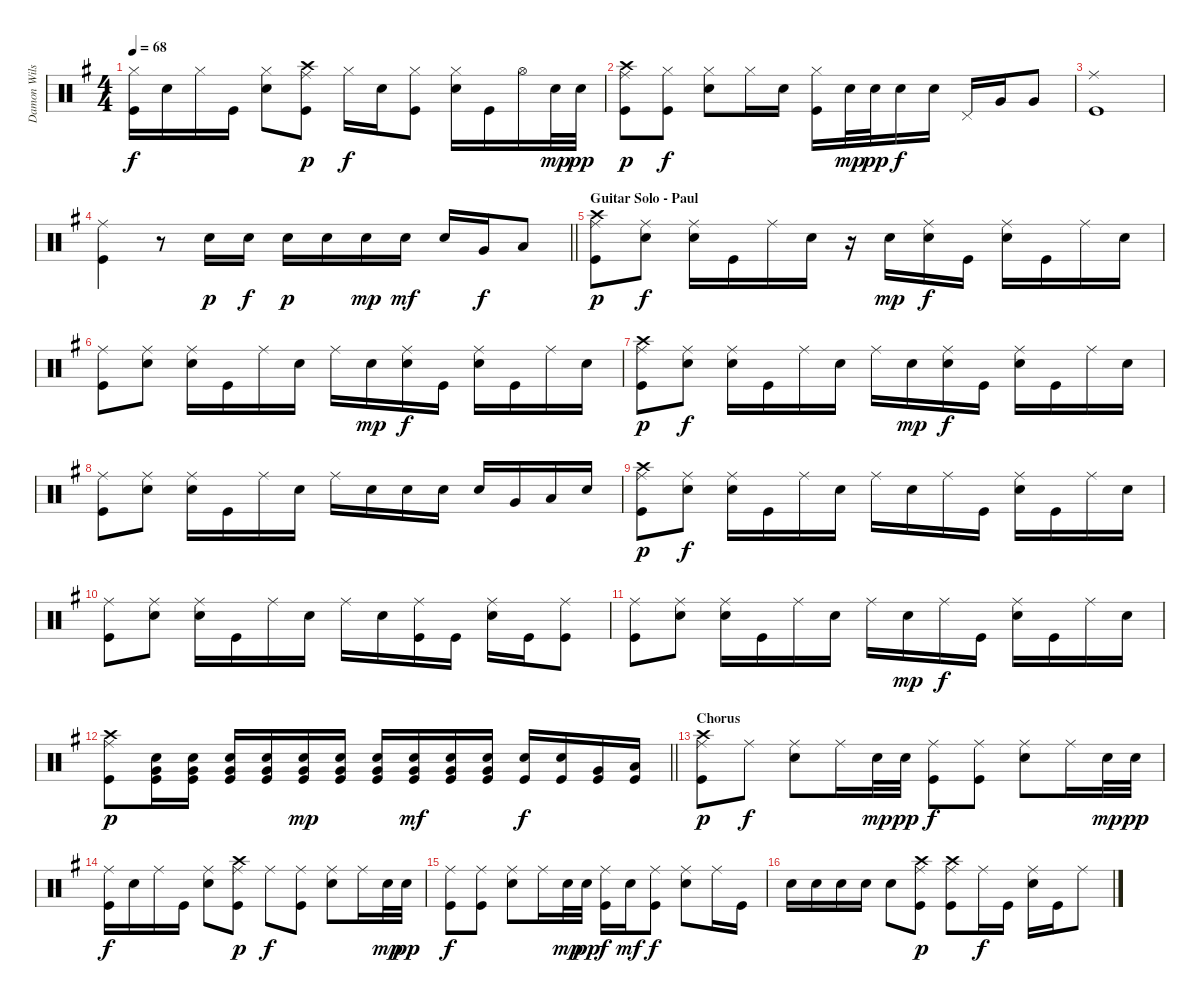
\track ("Damon Wilson" "Damon Wils") {instrument percussion}
\staff {score}
\articulation defaults
\ts (4 4)
\tempo 68
\clef neutral
\ks g
("Hi-Hat (closed)" "Kick (hit)").16{dy f} "Electric Snare (hit)".16 "Hi-Hat (closed)".16 "Kick (hit)".16 ("Hi-Hat (closed)" "Electric Snare (hit)").8 ("Ride (middle)" "Crash high (hit)" "Kick (hit)").8{dy p} "Hi-Hat (closed)".16{dy f} "Electric Snare (hit)".16 ("Hi-Hat (closed)" "Kick (hit)").8 ("Hi-Hat (closed)" "Electric Snare (hit)").16 "Kick (hit)".16 "Hi-Hat (open)".16 "Electric Snare (hit)".32{dy mp} "Electric Snare (hit)".32{dy pp} |
("Ride (middle)" "Crash high (hit)" "Kick (hit)").8{dy p} ("Hi-Hat (closed)" "Kick (hit)").8{dy f} ("Hi-Hat (closed)" "Electric Snare (hit)").8 "Hi-Hat (closed)".16 "Electric Snare (hit)".16 ("Hi-Hat (closed)" "Kick (hit)").16 "Electric Snare (hit)".32{dy mp} "Electric Snare (hit)".32{dy pp} "Electric Snare (hit)".16{dy f} "Electric Snare (hit)".16 "Pedal Hi-Hat (hit)".16 "Very Low Tom (hit)".16 "Very Low Tom (hit)".8 |
("Ride (middle)" "Kick (hit)").1 |
\barLineRight lightlight
("Ride (middle)" "Kick (hit)").4 r.8 "Electric Snare (hit)".16{dy p} "Electric Snare (hit)".16{dy f} "Electric Snare (hit)".16{dy p} "Electric Snare (hit)".16 "Electric Snare (hit)".16{dy mp} "Electric Snare (hit)".16{dy mf} "Electric Snare (hit)".16 "Very Low Tom (hit)".16{dy f} "Low Floor Tom (hit)".8 |
\section ("" "Guitar Solo - Paul")
("Ride (middle)" "Crash high (hit)" "Kick (hit)").8{dy p} ("Ride (middle)" "Electric Snare (hit)").8{dy f} ("Ride (middle)" "Electric Snare (hit)").16 "Kick (hit)".16 "Ride (middle)".16 "Electric Snare (hit)".16 r.16 "Electric Snare (hit)".16{dy mp} ("Ride (middle)" "Electric Snare (hit)").16{dy f} "Kick (hit)".16 ("Ride (middle)" "Electric Snare (hit)").16 "Kick (hit)".16 "Ride (middle)".16 "Electric Snare (hit)".16 |
("Ride (middle)" "Kick (hit)").8 ("Ride (middle)" "Electric Snare (hit)").8 ("Ride (middle)" "Electric Snare (hit)").16 "Kick (hit)".16 "Ride (middle)".16 "Electric Snare (hit)".16 "Ride (middle)".16 "Electric Snare (hit)".16{dy mp} ("Ride (middle)" "Electric Snare (hit)").16{dy f} "Kick (hit)".16 ("Ride (middle)" "Electric Snare (hit)").16 "Kick (hit)".16 "Ride (middle)".16 "Electric Snare (hit)".16 |
("Ride (middle)" "Crash high (hit)" "Kick (hit)").8{dy p} ("Ride (middle)" "Electric Snare (hit)").8{dy f} ("Ride (middle)" "Electric Snare (hit)").16 "Kick (hit)".16 "Ride (middle)".16 "Electric Snare (hit)".16 "Ride (middle)".16 "Electric Snare (hit)".16{dy mp} ("Ride (middle)" "Electric Snare (hit)").16{dy f} "Kick (hit)".16 ("Ride (middle)" "Electric Snare (hit)").16 "Kick (hit)".16 "Ride (middle)".16 "Electric Snare (hit)".16 |
("Ride (middle)" "Kick (hit)").8 ("Ride (middle)" "Electric Snare (hit)").8 ("Ride (middle)" "Electric Snare (hit)").16 "Kick (hit)".16 "Ride (middle)".16 "Electric Snare (hit)".16 "Ride (middle)".16 "Electric Snare (hit)".16 "Electric Snare (hit)".16 "Electric Snare (hit)".16 "Electric Snare (hit)".16 "Very Low Tom (hit)".16 "Low Floor Tom (hit)".16 "Electric Snare (hit)".16 |
("Ride (middle)" "Crash high (hit)" "Kick (hit)").8{dy p} ("Ride (middle)" "Electric Snare (hit)").8{dy f} ("Ride (middle)" "Electric Snare (hit)").16 "Kick (hit)".16 "Ride (middle)".16 "Electric Snare (hit)".16 "Ride (middle)".16 "Electric Snare (hit)".16 "Ride (middle)".16 "Kick (hit)".16 ("Ride (middle)" "Electric Snare (hit)").16 "Kick (hit)".16 "Ride (middle)".16 "Electric Snare (hit)".16 |
("Ride (middle)" "Kick (hit)").8 ("Ride (middle)" "Electric Snare (hit)").8 ("Ride (middle)" "Electric Snare (hit)").16 "Kick (hit)".16 "Ride (middle)".16 "Electric Snare (hit)".16 "Ride (middle)".16 "Electric Snare (hit)".16 ("Ride (middle)" "Kick (hit)").16 "Kick (hit)".16 ("Ride (middle)" "Electric Snare (hit)").16 "Kick (hit)".16 ("Ride (middle)" "Kick (hit)").8 |
("Ride (middle)" "Kick (hit)").8 ("Ride (middle)" "Electric Snare (hit)").8 ("Ride (middle)" "Electric Snare (hit)").16 "Kick (hit)".16 "Ride (middle)".16 "Electric Snare (hit)".16 "Ride (middle)".16 "Electric Snare (hit)".16{dy mp} "Ride (middle)".16{dy f} "Kick (hit)".16 ("Ride (middle)" "Electric Snare (hit)").16 "Kick (hit)".16 "Ride (middle)".16 "Electric Snare (hit)".16 |
\barLineRight lightlight
("Ride (middle)" "Crash high (hit)" "Kick (hit)").8{dy p} ("Very Low Tom (hit)" "Electric Snare (hit)" "Kick (hit)").16 ("Very Low Tom (hit)" "Electric Snare (hit)" "Kick (hit)").16 ("Very Low Tom (hit)" "Electric Snare (hit)" "Kick (hit)").16 ("Very Low Tom (hit)" "Electric Snare (hit)" "Kick (hit)").16 ("Very Low Tom (hit)" "Electric Snare (hit)" "Kick (hit)").16{dy mp} ("Very Low Tom (hit)" "Electric Snare (hit)" "Kick (hit)").16 ("Very Low Tom (hit)" "Electric Snare (hit)" "Kick (hit)").16 ("Very Low Tom (hit)" "Electric Snare (hit)" "Kick (hit)").16{dy mf} ("Very Low Tom (hit)" "Electric Snare (hit)" "Kick (hit)").16 ("Very Low Tom (hit)" "Electric Snare (hit)" "Kick (hit)").16 ("Electric Snare (hit)" "Kick (hit)").16{dy f} ("Electric Snare (hit)" "Kick (hit)").16 ("Very Low Tom (hit)" "Kick (hit)").16 ("Low Floor Tom (hit)" "Kick (hit)").16 |
\section ("" "Chorus")
("Ride (middle)" "Crash high (hit)" "Kick (hit)").8{dy p} "Ride (middle)".8{dy f} ("Ride (middle)" "Electric Snare (hit)").8 "Ride (middle)".16 "Electric Snare (hit)".32{dy mp} "Electric Snare (hit)".32{dy pp} ("Ride (middle)" "Kick (hit)").8{dy f} ("Ride (middle)" "Kick (hit)").8 ("Ride (middle)" "Electric Snare (hit)").8 "Ride (middle)".16 "Electric Snare (hit)".32{dy mp} "Electric Snare (hit)".32{dy pp} |
("Ride (middle)" "Kick (hit)").16{dy f} "Electric Snare (hit)".16 "Ride (middle)".16 "Kick (hit)".16 ("Ride (middle)" "Electric Snare (hit)").8 ("Ride (middle)" "Crash high (hit)" "Kick (hit)").8{dy p} "Ride (middle)".8{dy f} ("Ride (middle)" "Kick (hit)").8 ("Ride (middle)" "Electric Snare (hit)").8 "Ride (middle)".16 "Electric Snare (hit)".32{dy mp} "Electric Snare (hit)".32{dy pp} |
("Ride (middle)" "Kick (hit)").8{dy f} ("Ride (middle)" "Kick (hit)").8 ("Ride (middle)" "Electric Snare (hit)").8 "Ride (middle)".16 "Electric Snare (hit)".32{dy mp} "Electric Snare (hit)".32{dy pp} ("Ride (middle)" "Kick (hit)").16{dy f} "Electric Snare (hit)".16{dy mf} ("Ride (middle)" "Kick (hit)").8{dy f} ("Ride (middle)" "Electric Snare (hit)").8 "Ride (middle)".16 "Kick (hit)".16 |
"Electric Snare (hit)".16 "Electric Snare (hit)".16 "Electric Snare (hit)".16 "Electric Snare (hit)".16 "Electric Snare (hit)".8 ("Ride (middle)" "Crash high (hit)" "Kick (hit)").8{dy p} ("Ride (middle)" "Crash high (hit)" "Kick (hit)").8 "Ride (middle)".16{dy f} "Kick (hit)".16 ("Ride (middle)" "Electric Snare (hit)").16 "Kick (hit)".16 "Ride (middle)".8
